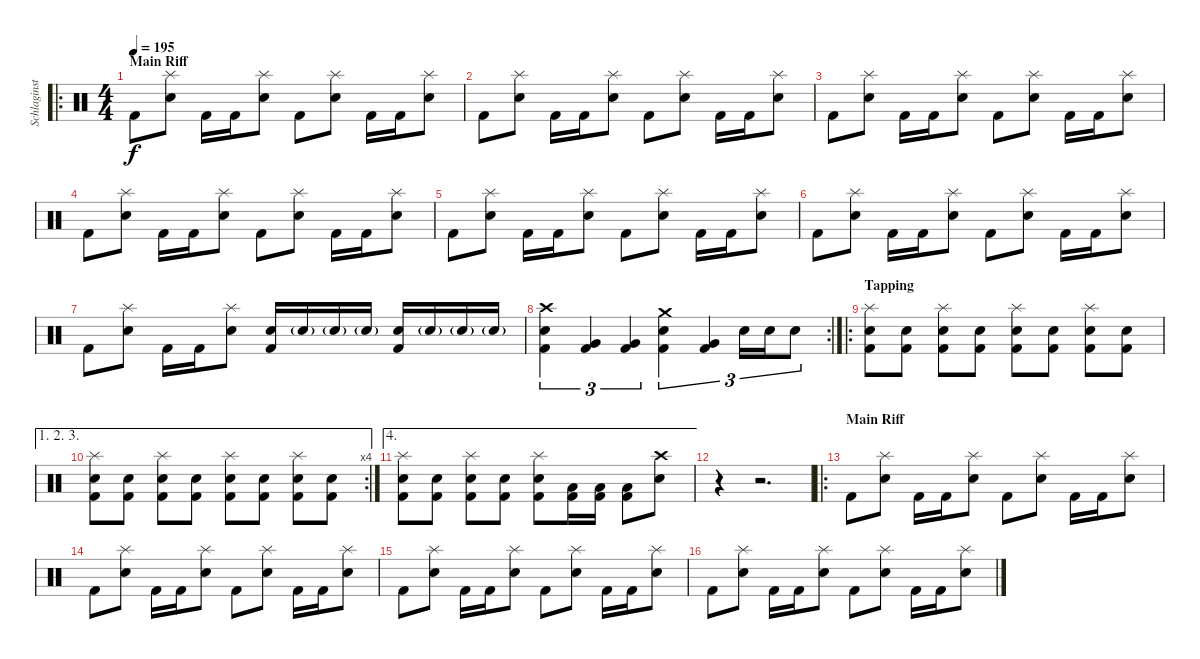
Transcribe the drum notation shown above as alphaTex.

\track ("Schlaginstrumente - Auswahl" "Schlaginst") {instrument percussion}
\staff {score}
\articulation defaults
\ro
\ts (4 4)
\section ("" "Main Riff")
\tempo 195
\clef neutral
\ks c "Kick (hit) 2".8{dy f}
("Snare (hit) 2" "Splash (hit)").8 "Kick (hit) 2".16 "Kick (hit) 2".16 ("Snare (hit) 2" "Splash (hit)").8 "Kick (hit) 2".8 ("Snare (hit) 2" "Splash (hit)").8 "Kick (hit) 2".16 "Kick (hit) 2".16 ("Snare (hit) 2" "Splash (hit)").8 |
"Kick (hit) 2".8 ("Snare (hit) 2" "Splash (hit)").8 "Kick (hit) 2".16 "Kick (hit) 2".16 ("Snare (hit) 2" "Splash (hit)").8 "Kick (hit) 2".8 ("Snare (hit) 2" "Splash (hit)").8 "Kick (hit) 2".16 "Kick (hit) 2".16 ("Snare (hit) 2" "Splash (hit)").8 |
"Kick (hit) 2".8 ("Snare (hit) 2" "Splash (hit)").8 "Kick (hit) 2".16 "Kick (hit) 2".16 ("Snare (hit) 2" "Splash (hit)").8 "Kick (hit) 2".8 ("Snare (hit) 2" "Splash (hit)").8 "Kick (hit) 2".16 "Kick (hit) 2".16 ("Snare (hit) 2" "Splash (hit)").8 |
"Kick (hit) 2".8 ("Snare (hit) 2" "Splash (hit)").8 "Kick (hit) 2".16 "Kick (hit) 2".16 ("Snare (hit) 2" "Splash (hit)").8 "Kick (hit) 2".8 ("Snare (hit) 2" "Splash (hit)").8 "Kick (hit) 2".16 "Kick (hit) 2".16 ("Snare (hit) 2" "Splash (hit)").8 |
"Kick (hit) 2".8 ("Snare (hit) 2" "Splash (hit)").8 "Kick (hit) 2".16 "Kick (hit) 2".16 ("Snare (hit) 2" "Splash (hit)").8 "Kick (hit) 2".8 ("Snare (hit) 2" "Splash (hit)").8 "Kick (hit) 2".16 "Kick (hit) 2".16 ("Snare (hit) 2" "Splash (hit)").8 |
"Kick (hit) 2".8 ("Snare (hit) 2" "Splash (hit)").8 "Kick (hit) 2".16 "Kick (hit) 2".16 ("Snare (hit) 2" "Splash (hit)").8 "Kick (hit) 2".8 ("Snare (hit) 2" "Splash (hit)").8 "Kick (hit) 2".16 "Kick (hit) 2".16 ("Snare (hit) 2" "Splash (hit)").8 |
"Kick (hit) 2".8 ("Snare (hit) 2" "Splash (hit)").8 "Kick (hit) 2".16 "Kick (hit) 2".16 ("Snare (hit) 2" "Splash (hit)").8 ("Snare (hit) 2" "Kick (hit) 2").16 "Snare (hit) 2"{g}.16 "Snare (hit) 2"{g}.16 "Snare (hit) 2"{g}.16 ("Snare (hit) 2" "Kick (hit) 2").16 "Snare (hit) 2"{g}.16 "Snare (hit) 2"{g}.16 "Snare (hit) 2"{g}.16 |
\rc 2
("Snare (hit) 2" "Crash high (hit)" "Kick (hit) 2").4{tu (3 2)} ("Very Low Tom (hit)" "Kick (hit) 2").4{tu (3 2)} ("Very Low Tom (hit)" "Kick (hit) 2").4{tu (3 2)} ("Snare (hit) 2" "Crash medium (hit)" "Kick (hit) 2").4{tu (3 2)} ("Very Low Tom (hit)" "Kick (hit) 2").4{tu (3 2)} "Snare (hit) 2".16{tu (3 2)} "Snare (hit) 2".16{tu (3 2)} "Snare (hit) 2".8{tu (3 2)} |
\ro
\section ("" "Tapping")
("Snare (hit) 2" "Splash (hit)" "Kick (hit) 2").8 ("Snare (hit) 2" "Kick (hit) 2").8 ("Snare (hit) 2" "Splash (hit)" "Kick (hit) 2").8 ("Snare (hit) 2" "Kick (hit) 2").8 ("Snare (hit) 2" "Splash (hit)" "Kick (hit) 2").8 ("Snare (hit) 2" "Kick (hit) 2").8 ("Snare (hit) 2" "Splash (hit)" "Kick (hit) 2").8 ("Snare (hit) 2" "Kick (hit) 2").8 |
\ae (1 2 3)
\rc 4
("Snare (hit) 2" "Splash (hit)" "Kick (hit) 2").8 ("Snare (hit) 2" "Kick (hit) 2").8 ("Snare (hit) 2" "Splash (hit)" "Kick (hit) 2").8 ("Snare (hit) 2" "Kick (hit) 2").8 ("Snare (hit) 2" "Splash (hit)" "Kick (hit) 2").8 ("Snare (hit) 2" "Kick (hit) 2").8 ("Snare (hit) 2" "Splash (hit)" "Kick (hit) 2").8 ("Snare (hit) 2" "Kick (hit) 2").8 |
\ae 4
("Snare (hit) 2" "Splash (hit)" "Kick (hit) 2").8 ("Snare (hit) 2" "Kick (hit) 2").8 ("Snare (hit) 2" "Splash (hit)" "Kick (hit) 2").8 ("Snare (hit) 2" "Kick (hit) 2").8 ("Snare (hit) 2" "Splash (hit)" "Kick (hit) 2").8 ("Low Tom (hit)" "Kick (hit) 2").16 ("Low Tom (hit)" "Kick (hit) 2").16 ("Low Tom (hit)" "Kick (hit) 2").8 ("Snare (hit) 2" "Crash high (hit)").8 |
r.4 r.2{d} |
\ro
\section ("" "Main Riff")
"Kick (hit) 2".8 ("Snare (hit) 2" "Splash (hit)").8 "Kick (hit) 2".16 "Kick (hit) 2".16 ("Snare (hit) 2" "Splash (hit)").8 "Kick (hit) 2".8 ("Snare (hit) 2" "Splash (hit)").8 "Kick (hit) 2".16 "Kick (hit) 2".16 ("Snare (hit) 2" "Splash (hit)").8 |
"Kick (hit) 2".8 ("Snare (hit) 2" "Splash (hit)").8 "Kick (hit) 2".16 "Kick (hit) 2".16 ("Snare (hit) 2" "Splash (hit)").8 "Kick (hit) 2".8 ("Snare (hit) 2" "Splash (hit)").8 "Kick (hit) 2".16 "Kick (hit) 2".16 ("Snare (hit) 2" "Splash (hit)").8 |
"Kick (hit) 2".8 ("Snare (hit) 2" "Splash (hit)").8 "Kick (hit) 2".16 "Kick (hit) 2".16 ("Snare (hit) 2" "Splash (hit)").8 "Kick (hit) 2".8 ("Snare (hit) 2" "Splash (hit)").8 "Kick (hit) 2".16 "Kick (hit) 2".16 ("Snare (hit) 2" "Splash (hit)").8 |
"Kick (hit) 2".8 ("Snare (hit) 2" "Splash (hit)").8 "Kick (hit) 2".16 "Kick (hit) 2".16 ("Snare (hit) 2" "Splash (hit)").8 "Kick (hit) 2".8 ("Snare (hit) 2" "Splash (hit)").8 "Kick (hit) 2".16 "Kick (hit) 2".16 ("Snare (hit) 2" "Splash (hit)").8
